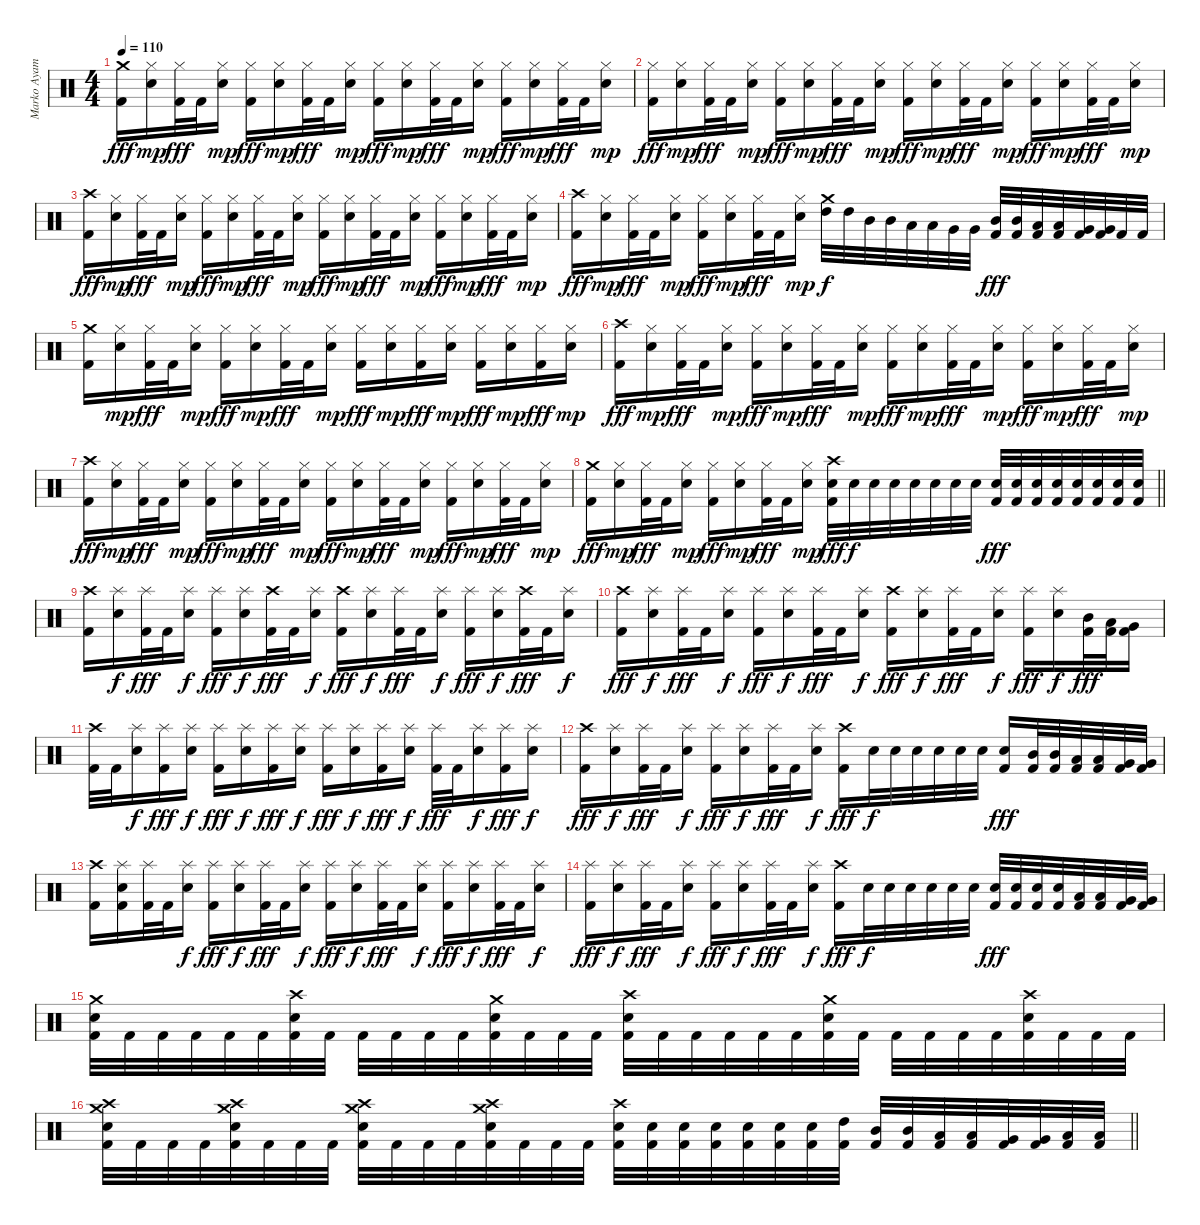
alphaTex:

\track ("Marko Ayamani" "Marko Ayam") {instrument percussion}
\staff {score}
\articulation defaults
\ts (4 4)
\tempo 110
\clef neutral
\ks c
("Crash medium (hit)" "Kick (hit) 2").16{dy fff} ("Hi-Hat (closed)" "Snare (hit) 2").16{dy mp} ("Hi-Hat (closed)" "Kick (hit) 2").32{dy fff} "Kick (hit) 2".32 ("Hi-Hat (closed)" "Snare (hit) 2").16{dy mp} ("Hi-Hat (closed)" "Kick (hit) 2").16{dy fff} ("Hi-Hat (closed)" "Snare (hit) 2").16{dy mp} ("Hi-Hat (closed)" "Kick (hit) 2").32{dy fff} "Kick (hit) 2".32 ("Hi-Hat (closed)" "Snare (hit) 2").16{dy mp} ("Hi-Hat (closed)" "Kick (hit) 2").16{dy fff} ("Hi-Hat (closed)" "Snare (hit) 2").16{dy mp} ("Hi-Hat (closed)" "Kick (hit) 2").32{dy fff} "Kick (hit) 2".32 ("Hi-Hat (closed)" "Snare (hit) 2").16{dy mp} ("Hi-Hat (closed)" "Kick (hit) 2").16{dy fff} ("Hi-Hat (closed)" "Snare (hit) 2").16{dy mp} ("Hi-Hat (closed)" "Kick (hit) 2").32{dy fff} "Kick (hit) 2".32 ("Hi-Hat (closed)" "Snare (hit) 2").16{dy mp} |
("Hi-Hat (closed)" "Kick (hit) 2").16{dy fff} ("Hi-Hat (closed)" "Snare (hit) 2").16{dy mp} ("Hi-Hat (closed)" "Kick (hit) 2").32{dy fff} "Kick (hit) 2".32 ("Hi-Hat (closed)" "Snare (hit) 2").16{dy mp} ("Hi-Hat (closed)" "Kick (hit) 2").16{dy fff} ("Hi-Hat (closed)" "Snare (hit) 2").16{dy mp} ("Hi-Hat (closed)" "Kick (hit) 2").32{dy fff} "Kick (hit) 2".32 ("Hi-Hat (closed)" "Snare (hit) 2").16{dy mp} ("Hi-Hat (closed)" "Kick (hit) 2").16{dy fff} ("Hi-Hat (closed)" "Snare (hit) 2").16{dy mp} ("Hi-Hat (closed)" "Kick (hit) 2").32{dy fff} "Kick (hit) 2".32 ("Hi-Hat (closed)" "Snare (hit) 2").16{dy mp} ("Hi-Hat (closed)" "Kick (hit) 2").16{dy fff} ("Hi-Hat (closed)" "Snare (hit) 2").16{dy mp} ("Hi-Hat (closed)" "Kick (hit) 2").32{dy fff} "Kick (hit) 2".32 ("Hi-Hat (closed)" "Snare (hit) 2").16{dy mp} |
("Crash high (hit)" "Kick (hit) 2").16{dy fff} ("Hi-Hat (closed)" "Snare (hit) 2").16{dy mp} ("Hi-Hat (closed)" "Kick (hit) 2").32{dy fff} "Kick (hit) 2".32 ("Hi-Hat (closed)" "Snare (hit) 2").16{dy mp} ("Hi-Hat (closed)" "Kick (hit) 2").16{dy fff} ("Hi-Hat (closed)" "Snare (hit) 2").16{dy mp} ("Hi-Hat (closed)" "Kick (hit) 2").32{dy fff} "Kick (hit) 2".32 ("Hi-Hat (closed)" "Snare (hit) 2").16{dy mp} ("Hi-Hat (closed)" "Kick (hit) 2").16{dy fff} ("Hi-Hat (closed)" "Snare (hit) 2").16{dy mp} ("Hi-Hat (closed)" "Kick (hit) 2").32{dy fff} "Kick (hit) 2".32 ("Hi-Hat (closed)" "Snare (hit) 2").16{dy mp} ("Hi-Hat (closed)" "Kick (hit) 2").16{dy fff} ("Hi-Hat (closed)" "Snare (hit) 2").16{dy mp} ("Hi-Hat (closed)" "Kick (hit) 2").32{dy fff} "Kick (hit) 2".32 ("Hi-Hat (closed)" "Snare (hit) 2").16{dy mp} |
("Crash high (hit)" "Kick (hit) 2").16{dy fff} ("Hi-Hat (closed)" "Snare (hit) 2").16{dy mp} ("Hi-Hat (closed)" "Kick (hit) 2").32{dy fff} "Kick (hit) 2".32 ("Hi-Hat (closed)" "Snare (hit) 2").16{dy mp} ("Hi-Hat (closed)" "Kick (hit) 2").16{dy fff} ("Hi-Hat (closed)" "Snare (hit) 2").16{dy mp} ("Hi-Hat (closed)" "Kick (hit) 2").32{dy fff} "Kick (hit) 2".32 ("Hi-Hat (closed)" "Snare (hit) 2").16{dy mp} ("Crash medium (hit)" "High Tom (hit)").32{dy f} "High Tom (hit)".32 "Mid Tom (hit)".32 "Mid Tom (hit)".32 "Low Tom (hit)".32 "Low Tom (hit)".32 "Very Low Tom (hit)".32 "Very Low Tom (hit)".32 ("Mid Tom (hit)" "Kick (hit) 2").32{dy fff} ("Mid Tom (hit)" "Kick (hit) 2").32 ("Low Tom (hit)" "Kick (hit) 2").32 ("Low Tom (hit)" "Kick (hit) 2").32 ("Very Low Tom (hit)" "Kick (hit) 2").32 ("Very Low Tom (hit)" "Kick (hit) 2").32 "Kick (hit) 2".32 "Kick (hit) 2".32 |
("Crash medium (hit)" "Kick (hit) 2").16 ("Hi-Hat (closed)" "Snare (hit) 2").16{dy mp} ("Hi-Hat (closed)" "Kick (hit) 2").32{dy fff} "Kick (hit) 2".32 ("Hi-Hat (closed)" "Snare (hit) 2").16{dy mp} ("Hi-Hat (closed)" "Kick (hit) 2").16{dy fff} ("Hi-Hat (closed)" "Snare (hit) 2").16{dy mp} ("Hi-Hat (closed)" "Kick (hit) 2").32{dy fff} "Kick (hit) 2".32 ("Hi-Hat (closed)" "Snare (hit) 2").16{dy mp} ("Hi-Hat (closed)" "Kick (hit) 2").16{dy fff} ("Hi-Hat (closed)" "Snare (hit) 2").16{dy mp} ("Hi-Hat (closed)" "Kick (hit) 2").16{dy fff} ("Hi-Hat (closed)" "Snare (hit) 2").16{dy mp} ("Hi-Hat (closed)" "Kick (hit) 2").16{dy fff} ("Hi-Hat (closed)" "Snare (hit) 2").16{dy mp} ("Hi-Hat (closed)" "Kick (hit) 2").16{dy fff} ("Hi-Hat (closed)" "Snare (hit) 2").16{dy mp} |
("Crash high (hit)" "Kick (hit) 2").16{dy fff} ("Hi-Hat (closed)" "Snare (hit) 2").16{dy mp} ("Hi-Hat (closed)" "Kick (hit) 2").32{dy fff} "Kick (hit) 2".32 ("Hi-Hat (closed)" "Snare (hit) 2").16{dy mp} ("Hi-Hat (closed)" "Kick (hit) 2").16{dy fff} ("Hi-Hat (closed)" "Snare (hit) 2").16{dy mp} ("Hi-Hat (closed)" "Kick (hit) 2").32{dy fff} "Kick (hit) 2".32 ("Hi-Hat (closed)" "Snare (hit) 2").16{dy mp} ("Hi-Hat (closed)" "Kick (hit) 2").16{dy fff} ("Hi-Hat (closed)" "Snare (hit) 2").16{dy mp} ("Hi-Hat (closed)" "Kick (hit) 2").32{dy fff} "Kick (hit) 2".32 ("Hi-Hat (closed)" "Snare (hit) 2").16{dy mp} ("Hi-Hat (closed)" "Kick (hit) 2").16{dy fff} ("Hi-Hat (closed)" "Snare (hit) 2").16{dy mp} ("Hi-Hat (closed)" "Kick (hit) 2").32{dy fff} "Kick (hit) 2".32 ("Hi-Hat (closed)" "Snare (hit) 2").16{dy mp} |
("Crash high (hit)" "Kick (hit) 2").16{dy fff} ("Hi-Hat (closed)" "Snare (hit) 2").16{dy mp} ("Hi-Hat (closed)" "Kick (hit) 2").32{dy fff} "Kick (hit) 2".32 ("Hi-Hat (closed)" "Snare (hit) 2").16{dy mp} ("Hi-Hat (closed)" "Kick (hit) 2").16{dy fff} ("Hi-Hat (closed)" "Snare (hit) 2").16{dy mp} ("Hi-Hat (closed)" "Kick (hit) 2").32{dy fff} "Kick (hit) 2".32 ("Hi-Hat (closed)" "Snare (hit) 2").16{dy mp} ("Hi-Hat (closed)" "Kick (hit) 2").16{dy fff} ("Hi-Hat (closed)" "Snare (hit) 2").16{dy mp} ("Hi-Hat (closed)" "Kick (hit) 2").32{dy fff} "Kick (hit) 2".32 ("Hi-Hat (closed)" "Snare (hit) 2").16{dy mp} ("Hi-Hat (closed)" "Kick (hit) 2").16{dy fff} ("Hi-Hat (closed)" "Snare (hit) 2").16{dy mp} ("Hi-Hat (closed)" "Kick (hit) 2").32{dy fff} "Kick (hit) 2".32 ("Hi-Hat (closed)" "Snare (hit) 2").16{dy mp} |
\barLineRight lightlight
("Crash medium (hit)" "Kick (hit) 2").16{dy fff} ("Hi-Hat (closed)" "Snare (hit) 2").16{dy mp} ("Hi-Hat (closed)" "Kick (hit) 2").32{dy fff} "Kick (hit) 2".32 ("Hi-Hat (closed)" "Snare (hit) 2").16{dy mp} ("Hi-Hat (closed)" "Kick (hit) 2").16{dy fff} ("Hi-Hat (closed)" "Snare (hit) 2").16{dy mp} ("Hi-Hat (closed)" "Kick (hit) 2").32{dy fff} "Kick (hit) 2".32 ("Hi-Hat (closed)" "Snare (hit) 2").16{dy mp} ("Crash high (hit)" "Snare (hit) 2" "Kick (hit) 2").32{dy fff} "Snare (hit) 2".32{dy f} "Snare (hit) 2".32 "Snare (hit) 2".32 "Snare (hit) 2".32 "Snare (hit) 2".32 "Snare (hit) 2".32 "Snare (hit) 2".32 ("Snare (hit) 2" "Kick (hit) 2").32{dy fff} ("Snare (hit) 2" "Kick (hit) 2").32 ("Snare (hit) 2" "Kick (hit) 2").32 ("Snare (hit) 2" "Kick (hit) 2").32 ("Snare (hit) 2" "Kick (hit) 2").32 ("Snare (hit) 2" "Kick (hit) 2").32 ("Snare (hit) 2" "Kick (hit) 2").32 ("Snare (hit) 2" "Kick (hit) 2").32 |
("Crash high (hit)" "Kick (hit) 2").16 ("Splash (hit)" "Snare (hit) 2").16{dy f} ("Splash (hit)" "Kick (hit) 2").32{dy fff} "Kick (hit) 2".32 ("Splash (hit)" "Snare (hit) 2").16{dy f} ("Splash (hit)" "Kick (hit) 2").16{dy fff} ("Splash (hit)" "Snare (hit) 2").16{dy f} ("Crash high (hit)" "Kick (hit) 2").32{dy fff} "Kick (hit) 2".32 ("Splash (hit)" "Snare (hit) 2").16{dy f} ("Crash high (hit)" "Kick (hit) 2").16{dy fff} ("Splash (hit)" "Snare (hit) 2").16{dy f} ("Splash (hit)" "Kick (hit) 2").32{dy fff} "Kick (hit) 2".32 ("Splash (hit)" "Snare (hit) 2").16{dy f} ("Splash (hit)" "Kick (hit) 2").16{dy fff} ("Splash (hit)" "Snare (hit) 2").16{dy f} ("Crash high (hit)" "Kick (hit) 2").32{dy fff} "Kick (hit) 2".32 ("Splash (hit)" "Snare (hit) 2").16{dy f} |
("Crash high (hit)" "Kick (hit) 2").16{dy fff} ("Splash (hit)" "Snare (hit) 2").16{dy f} ("Splash (hit)" "Kick (hit) 2").32{dy fff} "Kick (hit) 2".32 ("Splash (hit)" "Snare (hit) 2").16{dy f} ("Splash (hit)" "Kick (hit) 2").16{dy fff} ("Splash (hit)" "Snare (hit) 2").16{dy f} ("Splash (hit)" "Kick (hit) 2").32{dy fff} "Kick (hit) 2".32 ("Splash (hit)" "Snare (hit) 2").16{dy f} ("Crash high (hit)" "Kick (hit) 2").16{dy fff} ("Splash (hit)" "Snare (hit) 2").16{dy f} ("Splash (hit)" "Kick (hit) 2").32{dy fff} "Kick (hit) 2".32 ("Splash (hit)" "Snare (hit) 2").16{dy f} ("Splash (hit)" "Kick (hit) 2").16{dy fff} ("Splash (hit)" "Snare (hit) 2").16{dy f} ("Mid Tom (hit)" "Kick (hit) 2").32{dy fff} ("Low Tom (hit)" "Kick (hit) 2").32 ("Very Low Tom (hit)" "Kick (hit) 2").16 |
("Crash high (hit)" "Kick (hit) 2").32 "Kick (hit) 2".32 ("Splash (hit)" "Snare (hit) 2").16{dy f} ("Splash (hit)" "Kick (hit) 2").16{dy fff} ("Splash (hit)" "Snare (hit) 2").16{dy f} ("Splash (hit)" "Kick (hit) 2").16{dy fff} ("Splash (hit)" "Snare (hit) 2").16{dy f} ("Splash (hit)" "Kick (hit) 2").16{dy fff} ("Splash (hit)" "Snare (hit) 2").16{dy f} ("Splash (hit)" "Kick (hit) 2").16{dy fff} ("Splash (hit)" "Snare (hit) 2").16{dy f} ("Splash (hit)" "Kick (hit) 2").16{dy fff} ("Splash (hit)" "Snare (hit) 2").16{dy f} ("Splash (hit)" "Kick (hit) 2").32{dy fff} "Kick (hit) 2".32 ("Splash (hit)" "Snare (hit) 2").16{dy f} ("Splash (hit)" "Kick (hit) 2").16{dy fff} ("Splash (hit)" "Snare (hit) 2").16{dy f} |
("Crash high (hit)" "Kick (hit) 2").16{dy fff} ("Splash (hit)" "Snare (hit) 2").16{dy f} ("Splash (hit)" "Kick (hit) 2").32{dy fff} "Kick (hit) 2".32 ("Splash (hit)" "Snare (hit) 2").16{dy f} ("Splash (hit)" "Kick (hit) 2").16{dy fff} ("Splash (hit)" "Snare (hit) 2").16{dy f} ("Splash (hit)" "Kick (hit) 2").32{dy fff} "Kick (hit) 2".32 ("Splash (hit)" "Snare (hit) 2").16{dy f} ("Crash high (hit)" "Kick (hit) 2").16{dy fff} "Snare (hit) 2".32{dy f} "Snare (hit) 2".32 "Snare (hit) 2".32 "Snare (hit) 2".32 "Snare (hit) 2".32 "Snare (hit) 2".32 ("Snare (hit) 2" "Kick (hit) 2").16{dy fff} ("Mid Tom (hit)" "Kick (hit) 2").32 ("Mid Tom (hit)" "Kick (hit) 2").32 ("Low Tom (hit)" "Kick (hit) 2").32 ("Low Tom (hit)" "Kick (hit) 2").32 ("Very Low Tom (hit)" "Kick (hit) 2").32 ("Very Low Tom (hit)" "Kick (hit) 2").32 |
("Crash high (hit)" "Kick (hit) 2").16 ("Splash (hit)" "Snare (hit) 2" "Kick (hit) 2").16 ("Splash (hit)" "Kick (hit) 2").32 "Kick (hit) 2".32 ("Splash (hit)" "Snare (hit) 2").16{dy f} ("Splash (hit)" "Kick (hit) 2").16{dy fff} ("Splash (hit)" "Snare (hit) 2").16{dy f} ("Splash (hit)" "Kick (hit) 2").32{dy fff} "Kick (hit) 2".32 ("Splash (hit)" "Snare (hit) 2").16{dy f} ("Splash (hit)" "Kick (hit) 2").16{dy fff} ("Splash (hit)" "Snare (hit) 2").16{dy f} ("Splash (hit)" "Kick (hit) 2").32{dy fff} "Kick (hit) 2".32 ("Splash (hit)" "Snare (hit) 2").16{dy f} ("Splash (hit)" "Kick (hit) 2").16{dy fff} ("Splash (hit)" "Snare (hit) 2").16{dy f} ("Splash (hit)" "Kick (hit) 2").32{dy fff} "Kick (hit) 2".32 ("Splash (hit)" "Snare (hit) 2").16{dy f} |
("Splash (hit)" "Kick (hit) 2").16{dy fff} ("Splash (hit)" "Snare (hit) 2").16{dy f} ("Splash (hit)" "Kick (hit) 2").32{dy fff} "Kick (hit) 2".32 ("Splash (hit)" "Snare (hit) 2").16{dy f} ("Splash (hit)" "Kick (hit) 2").16{dy fff} ("Splash (hit)" "Snare (hit) 2").16{dy f} ("Splash (hit)" "Kick (hit) 2").32{dy fff} "Kick (hit) 2".32 ("Splash (hit)" "Snare (hit) 2").16{dy f} ("Crash high (hit)" "Kick (hit) 2").16{dy fff} "Snare (hit) 2".32{dy f} "Snare (hit) 2".32 "Snare (hit) 2".32 "Snare (hit) 2".32 "Snare (hit) 2".32 "Snare (hit) 2".32 ("Snare (hit) 2" "Kick (hit) 2").32{dy fff} ("Snare (hit) 2" "Kick (hit) 2").32 ("Snare (hit) 2" "Kick (hit) 2").32 ("Snare (hit) 2" "Kick (hit) 2").32 ("Low Tom (hit)" "Kick (hit) 2").32 ("Low Tom (hit)" "Kick (hit) 2").32 ("Very Low Tom (hit)" "Kick (hit) 2").32 ("Very Low Tom (hit)" "Kick (hit) 2").32 |
("Crash medium (hit)" "Snare (hit) 2" "Kick (hit) 2").32 "Kick (hit) 2".32 "Kick (hit) 2".32 "Kick (hit) 2".32 "Kick (hit) 2".32 "Kick (hit) 2".32 ("Crash high (hit)" "Snare (hit) 2" "Kick (hit) 2").32 "Kick (hit) 2".32 "Kick (hit) 2".32 "Kick (hit) 2".32 "Kick (hit) 2".32 "Kick (hit) 2".32 ("Crash medium (hit)" "Snare (hit) 2" "Kick (hit) 2").32 "Kick (hit) 2".32 "Kick (hit) 2".32 "Kick (hit) 2".32 ("Crash high (hit)" "Snare (hit) 2" "Kick (hit) 2").32 "Kick (hit) 2".32 "Kick (hit) 2".32 "Kick (hit) 2".32 "Kick (hit) 2".32 "Kick (hit) 2".32 ("Crash medium (hit)" "Snare (hit) 2" "Kick (hit) 2").32 "Kick (hit) 2".32 "Kick (hit) 2".32 "Kick (hit) 2".32 "Kick (hit) 2".32 "Kick (hit) 2".32 ("Crash high (hit)" "Snare (hit) 2" "Kick (hit) 2").32 "Kick (hit) 2".32 "Kick (hit) 2".32 "Kick (hit) 2".32 |
\barLineRight lightlight
("Crash medium (hit)" "Crash high (hit)" "Snare (hit) 2" "Kick (hit) 2").32 "Kick (hit) 2".32 "Kick (hit) 2".32 "Kick (hit) 2".32 ("Crash medium (hit)" "Crash high (hit)" "Snare (hit) 2" "Kick (hit) 2").32 "Kick (hit) 2".32 "Kick (hit) 2".32 "Kick (hit) 2".32 ("Crash medium (hit)" "Crash high (hit)" "Snare (hit) 2" "Kick (hit) 2").32 "Kick (hit) 2".32 "Kick (hit) 2".32 "Kick (hit) 2".32 ("Crash medium (hit)" "Crash high (hit)" "Snare (hit) 2" "Kick (hit) 2").32 "Kick (hit) 2".32 "Kick (hit) 2".32 "Kick (hit) 2".32 ("Crash high (hit)" "Snare (hit) 2" "Kick (hit) 2").32 ("Snare (hit) 2" "Kick (hit) 2").32 ("Snare (hit) 2" "Kick (hit) 2").32 ("Snare (hit) 2" "Kick (hit) 2").32 ("Snare (hit) 2" "Kick (hit) 2").32 ("Snare (hit) 2" "Kick (hit) 2").32 ("Snare (hit) 2" "Kick (hit) 2").32 ("High Tom (hit)" "Kick (hit) 2").32 ("Mid Tom (hit)" "Kick (hit) 2").32 ("Mid Tom (hit)" "Kick (hit) 2").32 ("Low Tom (hit)" "Kick (hit) 2").32 ("Low Tom (hit)" "Kick (hit) 2").32 ("Very Low Tom (hit)" "Kick (hit) 2").32 ("Very Low Tom (hit)" "Kick (hit) 2").32 ("Low Floor Tom (hit)" "Kick (hit) 2").32 ("Low Floor Tom (hit)" "Kick (hit) 2").32
